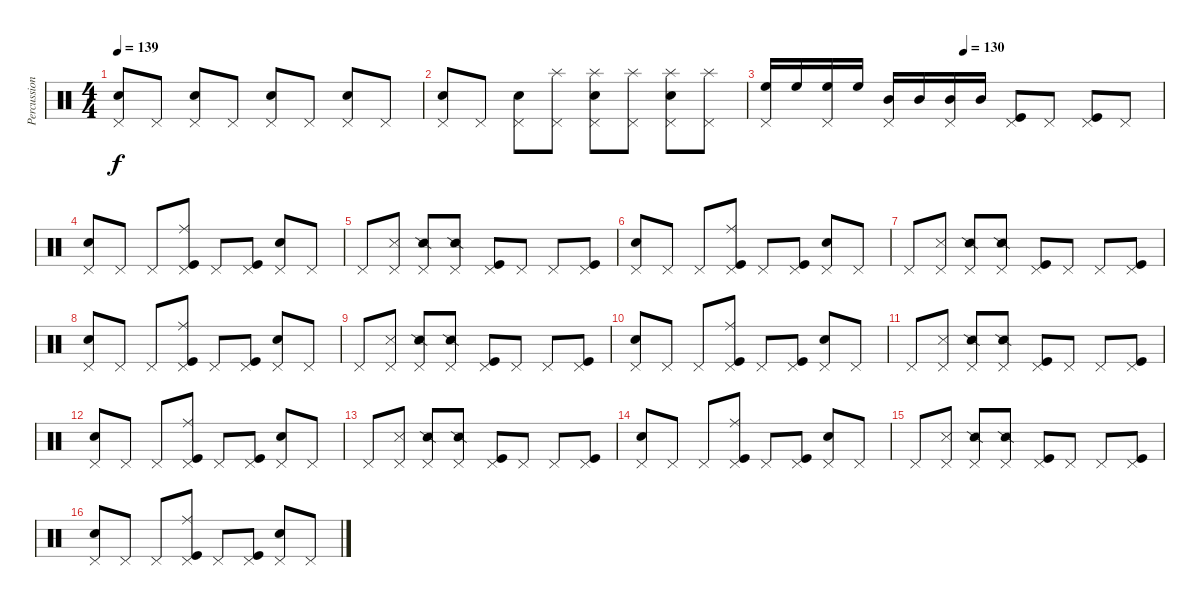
\track ("Percussion" "Percussion") {instrument percussion}
\staff {score}
\articulation defaults
\ts (4 4)
\tempo 139
\clef neutral
\ks c
("Electric Snare (hit)" "Pedal Hi-Hat (hit)").8{dy f} "Pedal Hi-Hat (hit)".8 ("Electric Snare (hit)" "Pedal Hi-Hat (hit)").8 "Pedal Hi-Hat (hit)".8 ("Electric Snare (hit)" "Pedal Hi-Hat (hit)").8 "Pedal Hi-Hat (hit)".8 ("Electric Snare (hit)" "Pedal Hi-Hat (hit)").8 "Pedal Hi-Hat (hit)".8 |
("Electric Snare (hit)" "Pedal Hi-Hat (hit)").8 "Pedal Hi-Hat (hit)".8 ("Electric Snare (hit)" "Pedal Hi-Hat (hit)").8 ("Splash (hit)" "Pedal Hi-Hat (hit)").8 ("Splash (hit)" "Electric Snare (hit)" "Pedal Hi-Hat (hit)").8 ("Splash (hit)" "Pedal Hi-Hat (hit)").8 ("Splash (hit)" "Electric Snare (hit)" "Pedal Hi-Hat (hit)").8 ("Splash (hit)" "Pedal Hi-Hat (hit)").8 |
\tempo (130 0.5)
("High Floor Tom (hit)" "Pedal Hi-Hat (hit)").16 "High Floor Tom (hit)".16 ("High Floor Tom (hit)" "Pedal Hi-Hat (hit)").16 "High Floor Tom (hit)".16 ("Mid Tom (hit)" "Pedal Hi-Hat (hit)").16 "Mid Tom (hit)".16 ("Mid Tom (hit)" "Pedal Hi-Hat (hit)").16 "Mid Tom (hit)".16 ("Kick (hit)" "Pedal Hi-Hat (hit)").8 "Pedal Hi-Hat (hit)".8 ("Kick (hit)" "Pedal Hi-Hat (hit)").8 "Pedal Hi-Hat (hit)".8 |
("Electric Snare (hit)" "Pedal Hi-Hat (hit)").8 "Pedal Hi-Hat (hit)".8 "Pedal Hi-Hat (hit)".8 ("Ride (middle)" "Kick (hit)" "Pedal Hi-Hat (hit)").8 "Pedal Hi-Hat (hit)".8 ("Kick (hit)" "Pedal Hi-Hat (hit)").8 ("Electric Snare (hit)" "Pedal Hi-Hat (hit)").8 "Pedal Hi-Hat (hit)".8 |
"Pedal Hi-Hat (hit)".8 ("Snare (side stick) 3" "Pedal Hi-Hat (hit)").8 ("Snare (side stick) 2" "Pedal Hi-Hat (hit)").8 ("Snare (side stick) 2" "Pedal Hi-Hat (hit)").8 ("Kick (hit)" "Pedal Hi-Hat (hit)").8 "Pedal Hi-Hat (hit)".8 "Pedal Hi-Hat (hit)".8 ("Kick (hit)" "Pedal Hi-Hat (hit)").8 |
("Electric Snare (hit)" "Pedal Hi-Hat (hit)").8 "Pedal Hi-Hat (hit)".8 "Pedal Hi-Hat (hit)".8 ("Ride (middle)" "Kick (hit)" "Pedal Hi-Hat (hit)").8 "Pedal Hi-Hat (hit)".8 ("Kick (hit)" "Pedal Hi-Hat (hit)").8 ("Electric Snare (hit)" "Pedal Hi-Hat (hit)").8 "Pedal Hi-Hat (hit)".8 |
"Pedal Hi-Hat (hit)".8 ("Snare (side stick) 3" "Pedal Hi-Hat (hit)").8 ("Snare (side stick) 2" "Pedal Hi-Hat (hit)").8 ("Snare (side stick) 2" "Pedal Hi-Hat (hit)").8 ("Kick (hit)" "Pedal Hi-Hat (hit)").8 "Pedal Hi-Hat (hit)".8 "Pedal Hi-Hat (hit)".8 ("Kick (hit)" "Pedal Hi-Hat (hit)").8 |
("Electric Snare (hit)" "Pedal Hi-Hat (hit)").8 "Pedal Hi-Hat (hit)".8 "Pedal Hi-Hat (hit)".8 ("Ride (middle)" "Kick (hit)" "Pedal Hi-Hat (hit)").8 "Pedal Hi-Hat (hit)".8 ("Kick (hit)" "Pedal Hi-Hat (hit)").8 ("Electric Snare (hit)" "Pedal Hi-Hat (hit)").8 "Pedal Hi-Hat (hit)".8 |
"Pedal Hi-Hat (hit)".8 ("Snare (side stick) 3" "Pedal Hi-Hat (hit)").8 ("Snare (side stick) 2" "Pedal Hi-Hat (hit)").8 ("Snare (side stick) 2" "Pedal Hi-Hat (hit)").8 ("Kick (hit)" "Pedal Hi-Hat (hit)").8 "Pedal Hi-Hat (hit)".8 "Pedal Hi-Hat (hit)".8 ("Kick (hit)" "Pedal Hi-Hat (hit)").8 |
("Electric Snare (hit)" "Pedal Hi-Hat (hit)").8 "Pedal Hi-Hat (hit)".8 "Pedal Hi-Hat (hit)".8 ("Ride (middle)" "Kick (hit)" "Pedal Hi-Hat (hit)").8 "Pedal Hi-Hat (hit)".8 ("Kick (hit)" "Pedal Hi-Hat (hit)").8 ("Electric Snare (hit)" "Pedal Hi-Hat (hit)").8 "Pedal Hi-Hat (hit)".8 |
"Pedal Hi-Hat (hit)".8 ("Snare (side stick) 3" "Pedal Hi-Hat (hit)").8 ("Snare (side stick) 2" "Pedal Hi-Hat (hit)").8 ("Snare (side stick) 2" "Pedal Hi-Hat (hit)").8 ("Kick (hit)" "Pedal Hi-Hat (hit)").8 "Pedal Hi-Hat (hit)".8 "Pedal Hi-Hat (hit)".8 ("Kick (hit)" "Pedal Hi-Hat (hit)").8 |
("Electric Snare (hit)" "Pedal Hi-Hat (hit)").8 "Pedal Hi-Hat (hit)".8 "Pedal Hi-Hat (hit)".8 ("Ride (middle)" "Kick (hit)" "Pedal Hi-Hat (hit)").8 "Pedal Hi-Hat (hit)".8 ("Kick (hit)" "Pedal Hi-Hat (hit)").8 ("Electric Snare (hit)" "Pedal Hi-Hat (hit)").8 "Pedal Hi-Hat (hit)".8 |
"Pedal Hi-Hat (hit)".8 ("Snare (side stick) 3" "Pedal Hi-Hat (hit)").8 ("Snare (side stick) 2" "Pedal Hi-Hat (hit)").8 ("Snare (side stick) 2" "Pedal Hi-Hat (hit)").8 ("Kick (hit)" "Pedal Hi-Hat (hit)").8 "Pedal Hi-Hat (hit)".8 "Pedal Hi-Hat (hit)".8 ("Kick (hit)" "Pedal Hi-Hat (hit)").8 |
("Electric Snare (hit)" "Pedal Hi-Hat (hit)").8 "Pedal Hi-Hat (hit)".8 "Pedal Hi-Hat (hit)".8 ("Ride (middle)" "Kick (hit)" "Pedal Hi-Hat (hit)").8 "Pedal Hi-Hat (hit)".8 ("Kick (hit)" "Pedal Hi-Hat (hit)").8 ("Electric Snare (hit)" "Pedal Hi-Hat (hit)").8 "Pedal Hi-Hat (hit)".8 |
"Pedal Hi-Hat (hit)".8 ("Snare (side stick) 3" "Pedal Hi-Hat (hit)").8 ("Snare (side stick) 2" "Pedal Hi-Hat (hit)").8 ("Snare (side stick) 2" "Pedal Hi-Hat (hit)").8 ("Kick (hit)" "Pedal Hi-Hat (hit)").8 "Pedal Hi-Hat (hit)".8 "Pedal Hi-Hat (hit)".8 ("Kick (hit)" "Pedal Hi-Hat (hit)").8 |
("Electric Snare (hit)" "Pedal Hi-Hat (hit)").8 "Pedal Hi-Hat (hit)".8 "Pedal Hi-Hat (hit)".8 ("Ride (middle)" "Kick (hit)" "Pedal Hi-Hat (hit)").8 "Pedal Hi-Hat (hit)".8 ("Kick (hit)" "Pedal Hi-Hat (hit)").8 ("Electric Snare (hit)" "Pedal Hi-Hat (hit)").8 "Pedal Hi-Hat (hit)".8
